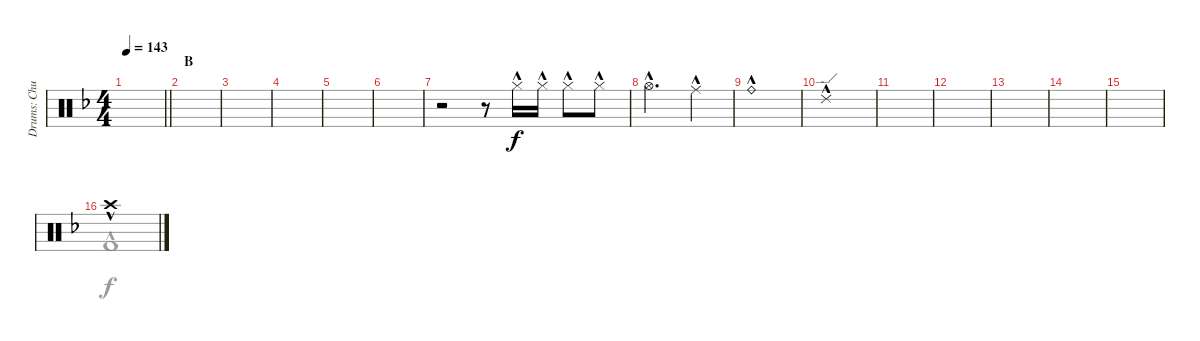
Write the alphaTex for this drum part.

\track ("Drums: Chuck" "Drums: Chu") {instrument percussion}
\staff {score}
\articulation defaults
\voice
\ts (4 4)
\tempo 143
\clef neutral
\barLineRight lightlight
\ks f
|
\section ("" "B")
|
|
|
|
|
r.2 r.8 "Hi-Hat (closed)"{hac}.16 "Hi-Hat (closed)"{hac}.16 "Hi-Hat (closed)"{hac}.8 "Hi-Hat (closed)"{hac}.8 |
"Hi-Hat (open)"{hac}.2{d} "Ride (middle)"{hac}.4 |
"Ride (bell)"{hac}.1 |
"Ride (edge) 2"{hac}.1 |
|
|
|
|
|
"Crash high (hit)"{hac}.1
\voice
\clef neutral
\ottava regular
\simile none
\barLineRight lightlight
\ks f
|
|
|
|
|
|
|
|
|
|
|
|
|
|
|
"Kick (hit) 2"{hac}.1
